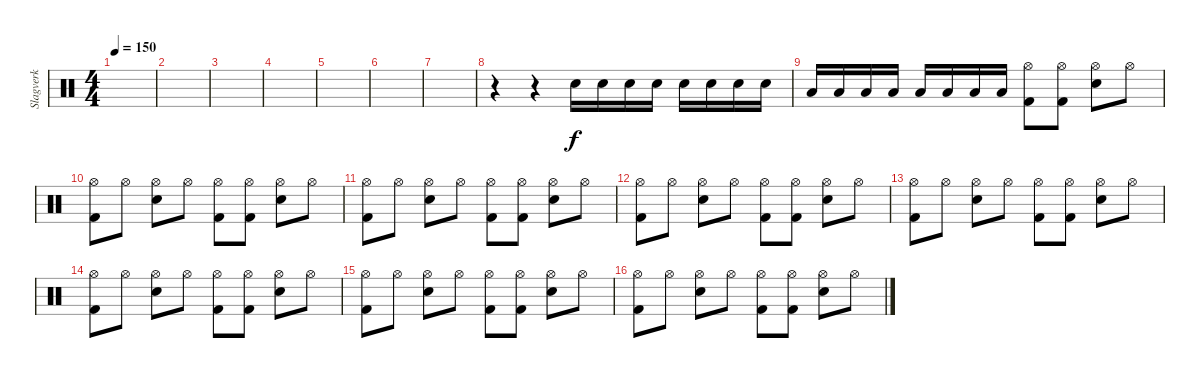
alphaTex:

\track ("Slagverk" "Slagverk") {instrument percussion}
\staff {score}
\articulation defaults
\ts (4 4)
\tempo 150
\clef neutral
\ks c
|
|
|
|
|
|
|
r.4 r.4 "Electric Snare (hit)".16 "Electric Snare (hit)".16 "Electric Snare (hit)".16 "Electric Snare (hit)".16 "Electric Snare (hit)".16 "Electric Snare (hit)".16 "Electric Snare (hit)".16 "Electric Snare (hit)".16 |
"Low Tom (hit)".16 "Low Tom (hit)".16 "Low Tom (hit)".16 "Low Tom (hit)".16 "Low Tom (hit)".16 "Low Tom (hit)".16 "Low Tom (hit)".16 "Low Tom (hit)".16 ("Hi-Hat (open)" "Kick (hit) 2").8 ("Hi-Hat (open)" "Kick (hit) 2").8 ("Hi-Hat (open)" "Electric Snare (hit)").8 "Hi-Hat (open)".8 |
("Hi-Hat (open)" "Kick (hit) 2").8 "Hi-Hat (open)".8 ("Hi-Hat (open)" "Electric Snare (hit)").8 "Hi-Hat (open)".8 ("Hi-Hat (open)" "Kick (hit) 2").8 ("Hi-Hat (open)" "Kick (hit) 2").8 ("Hi-Hat (open)" "Electric Snare (hit)").8 "Hi-Hat (open)".8 |
("Hi-Hat (open)" "Kick (hit) 2").8 "Hi-Hat (open)".8 ("Hi-Hat (open)" "Electric Snare (hit)").8 "Hi-Hat (open)".8 ("Hi-Hat (open)" "Kick (hit) 2").8 ("Hi-Hat (open)" "Kick (hit) 2").8 ("Hi-Hat (open)" "Electric Snare (hit)").8 "Hi-Hat (open)".8 |
("Hi-Hat (open)" "Kick (hit) 2").8 "Hi-Hat (open)".8 ("Hi-Hat (open)" "Electric Snare (hit)").8 "Hi-Hat (open)".8 ("Hi-Hat (open)" "Kick (hit) 2").8 ("Hi-Hat (open)" "Kick (hit) 2").8 ("Hi-Hat (open)" "Electric Snare (hit)").8 "Hi-Hat (open)".8 |
("Hi-Hat (open)" "Kick (hit) 2").8 "Hi-Hat (open)".8 ("Hi-Hat (open)" "Electric Snare (hit)").8 "Hi-Hat (open)".8 ("Hi-Hat (open)" "Kick (hit) 2").8 ("Hi-Hat (open)" "Kick (hit) 2").8 ("Hi-Hat (open)" "Electric Snare (hit)").8 "Hi-Hat (open)".8 |
("Hi-Hat (open)" "Kick (hit) 2").8 "Hi-Hat (open)".8 ("Hi-Hat (open)" "Electric Snare (hit)").8 "Hi-Hat (open)".8 ("Hi-Hat (open)" "Kick (hit) 2").8 ("Hi-Hat (open)" "Kick (hit) 2").8 ("Hi-Hat (open)" "Electric Snare (hit)").8 "Hi-Hat (open)".8 |
("Hi-Hat (open)" "Kick (hit) 2").8 "Hi-Hat (open)".8 ("Hi-Hat (open)" "Electric Snare (hit)").8 "Hi-Hat (open)".8 ("Hi-Hat (open)" "Kick (hit) 2").8 ("Hi-Hat (open)" "Kick (hit) 2").8 ("Hi-Hat (open)" "Electric Snare (hit)").8 "Hi-Hat (open)".8 |
("Hi-Hat (open)" "Kick (hit) 2").8 "Hi-Hat (open)".8 ("Hi-Hat (open)" "Electric Snare (hit)").8 "Hi-Hat (open)".8 ("Hi-Hat (open)" "Kick (hit) 2").8 ("Hi-Hat (open)" "Kick (hit) 2").8 ("Hi-Hat (open)" "Electric Snare (hit)").8 "Hi-Hat (open)".8
